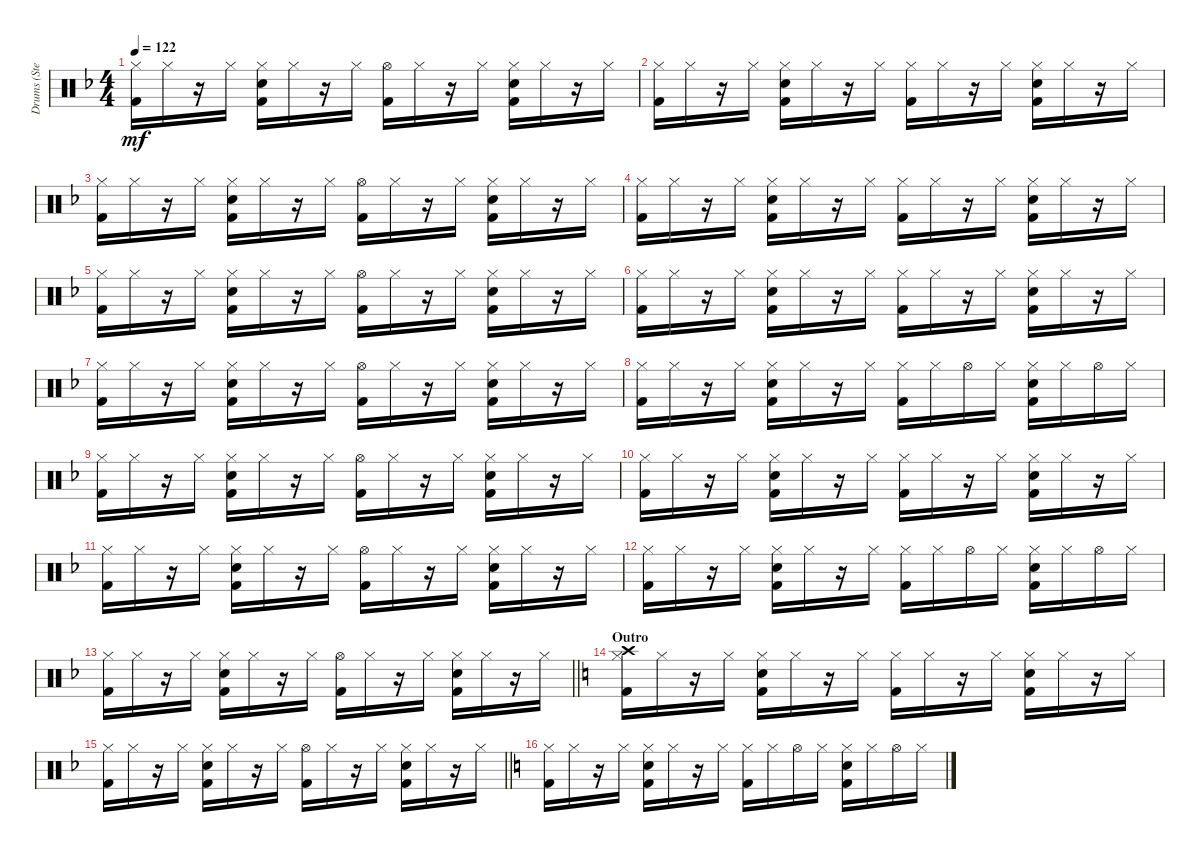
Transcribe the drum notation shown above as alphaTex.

\track ("Drums (Stephen Morris)" "Drums (Ste") {instrument percussion}
\staff {score}
\articulation defaults
\ts (4 4)
\tempo 122
\clef neutral
\ks f
("Kick (hit) 2" "Hi-Hat (closed)").16{dy mf} "Hi-Hat (closed)".16 r.16 "Hi-Hat (closed)".16 ("Hi-Hat (closed)" "Snare (hit) 2" "Kick (hit) 2").16 "Hi-Hat (closed)".16 r.16 "Hi-Hat (closed)".16 ("Kick (hit) 2" "Hi-Hat (open)").16 "Hi-Hat (closed)".16 r.16 "Hi-Hat (closed)".16 ("Hi-Hat (closed)" "Snare (hit) 2" "Kick (hit) 2").16 "Hi-Hat (closed)".16 r.16 "Hi-Hat (closed)".16 |
("Kick (hit) 2" "Hi-Hat (closed)").16 "Hi-Hat (closed)".16 r.16 "Hi-Hat (closed)".16 ("Kick (hit) 2" "Snare (hit) 2" "Hi-Hat (closed)").16 "Hi-Hat (closed)".16 r.16 "Hi-Hat (closed)".16 ("Kick (hit) 2" "Hi-Hat (closed)").16 "Hi-Hat (closed)".16 r.16 "Hi-Hat (closed)".16 ("Hi-Hat (closed)" "Snare (hit) 2" "Kick (hit) 2").16 "Hi-Hat (closed)".16 r.16 "Hi-Hat (closed)".16 |
("Kick (hit) 2" "Hi-Hat (closed)").16 "Hi-Hat (closed)".16 r.16 "Hi-Hat (closed)".16 ("Hi-Hat (closed)" "Snare (hit) 2" "Kick (hit) 2").16 "Hi-Hat (closed)".16 r.16 "Hi-Hat (closed)".16 ("Kick (hit) 2" "Hi-Hat (open)").16 "Hi-Hat (closed)".16 r.16 "Hi-Hat (closed)".16 ("Hi-Hat (closed)" "Snare (hit) 2" "Kick (hit) 2").16 "Hi-Hat (closed)".16 r.16 "Hi-Hat (closed)".16 |
("Kick (hit) 2" "Hi-Hat (closed)").16 "Hi-Hat (closed)".16 r.16 "Hi-Hat (closed)".16 ("Snare (hit) 2" "Kick (hit) 2" "Hi-Hat (closed)").16 "Hi-Hat (closed)".16 r.16 "Hi-Hat (closed)".16 ("Kick (hit) 2" "Hi-Hat (closed)").16 "Hi-Hat (closed)".16 r.16 "Hi-Hat (closed)".16 ("Hi-Hat (closed)" "Snare (hit) 2" "Kick (hit) 2").16 "Hi-Hat (closed)".16 r.16 "Hi-Hat (closed)".16 |
("Kick (hit) 2" "Hi-Hat (closed)").16 "Hi-Hat (closed)".16 r.16 "Hi-Hat (closed)".16 ("Kick (hit) 2" "Snare (hit) 2" "Hi-Hat (closed)").16 "Hi-Hat (closed)".16 r.16 "Hi-Hat (closed)".16 ("Kick (hit) 2" "Hi-Hat (open)").16 "Hi-Hat (closed)".16 r.16 "Hi-Hat (closed)".16 ("Hi-Hat (closed)" "Kick (hit) 2" "Snare (hit) 2").16 "Hi-Hat (closed)".16 r.16 "Hi-Hat (closed)".16 |
("Hi-Hat (closed)" "Kick (hit) 2").16 "Hi-Hat (closed)".16 r.16 "Hi-Hat (closed)".16 ("Hi-Hat (closed)" "Snare (hit) 2" "Kick (hit) 2").16 "Hi-Hat (closed)".16 r.16 "Hi-Hat (closed)".16 ("Kick (hit) 2" "Hi-Hat (closed)").16 "Hi-Hat (closed)".16 r.16 "Hi-Hat (closed)".16 ("Kick (hit) 2" "Snare (hit) 2" "Hi-Hat (closed)").16 "Hi-Hat (closed)".16 r.16 "Hi-Hat (closed)".16 |
("Kick (hit) 2" "Hi-Hat (closed)").16 "Hi-Hat (closed)".16 r.16 "Hi-Hat (closed)".16 ("Hi-Hat (closed)" "Kick (hit) 2" "Snare (hit) 2").16 "Hi-Hat (closed)".16 r.16 "Hi-Hat (closed)".16 ("Kick (hit) 2" "Hi-Hat (open)").16 "Hi-Hat (closed)".16 r.16 "Hi-Hat (closed)".16 ("Kick (hit) 2" "Snare (hit) 2" "Hi-Hat (closed)").16 "Hi-Hat (closed)".16 r.16 "Hi-Hat (closed)".16 |
("Kick (hit) 2" "Hi-Hat (closed)").16 "Hi-Hat (closed)".16 r.16 "Hi-Hat (closed)".16 ("Hi-Hat (closed)" "Kick (hit) 2" "Snare (hit) 2").16 "Hi-Hat (closed)".16 r.16 "Hi-Hat (closed)".16 ("Hi-Hat (closed)" "Kick (hit) 2").16 "Hi-Hat (closed)".16 "Hi-Hat (open)".16 "Hi-Hat (closed)".16 ("Kick (hit) 2" "Snare (hit) 2" "Hi-Hat (closed)").16 "Hi-Hat (closed)".16 "Hi-Hat (open)".16 "Hi-Hat (closed)".16 |
("Kick (hit) 2" "Hi-Hat (closed)").16 "Hi-Hat (closed)".16 r.16 "Hi-Hat (closed)".16 ("Hi-Hat (closed)" "Snare (hit) 2" "Kick (hit) 2").16 "Hi-Hat (closed)".16 r.16 "Hi-Hat (closed)".16 ("Kick (hit) 2" "Hi-Hat (open)").16 "Hi-Hat (closed)".16 r.16 "Hi-Hat (closed)".16 ("Snare (hit) 2" "Kick (hit) 2" "Hi-Hat (closed)").16 "Hi-Hat (closed)".16 r.16 "Hi-Hat (closed)".16 |
("Kick (hit) 2" "Hi-Hat (closed)").16 "Hi-Hat (closed)".16 r.16 "Hi-Hat (closed)".16 ("Hi-Hat (closed)" "Snare (hit) 2" "Kick (hit) 2").16 "Hi-Hat (closed)".16 r.16 "Hi-Hat (closed)".16 ("Kick (hit) 2" "Hi-Hat (closed)").16 "Hi-Hat (closed)".16 r.16 "Hi-Hat (closed)".16 ("Snare (hit) 2" "Kick (hit) 2" "Hi-Hat (closed)").16 "Hi-Hat (closed)".16 r.16 "Hi-Hat (closed)".16 |
("Kick (hit) 2" "Hi-Hat (closed)").16 "Hi-Hat (closed)".16 r.16 "Hi-Hat (closed)".16 ("Hi-Hat (closed)" "Snare (hit) 2" "Kick (hit) 2").16 "Hi-Hat (closed)".16 r.16 "Hi-Hat (closed)".16 ("Hi-Hat (open)" "Kick (hit) 2").16 "Hi-Hat (closed)".16 r.16 "Hi-Hat (closed)".16 ("Hi-Hat (closed)" "Snare (hit) 2" "Kick (hit) 2").16 "Hi-Hat (closed)".16 r.16 "Hi-Hat (closed)".16 |
("Kick (hit) 2" "Hi-Hat (closed)").16 "Hi-Hat (closed)".16 r.16 "Hi-Hat (closed)".16 ("Kick (hit) 2" "Snare (hit) 2" "Hi-Hat (closed)").16 "Hi-Hat (closed)".16 r.16 "Hi-Hat (closed)".16 ("Hi-Hat (closed)" "Kick (hit) 2").16 "Hi-Hat (closed)".16 "Hi-Hat (open)".16 "Hi-Hat (closed)".16 ("Kick (hit) 2" "Snare (hit) 2" "Hi-Hat (closed)").16 "Hi-Hat (closed)".16 "Hi-Hat (open)".16 "Hi-Hat (closed)".16 |
\barLineRight lightlight
("Kick (hit) 2" "Hi-Hat (closed)").16 "Hi-Hat (closed)".16 r.16 "Hi-Hat (closed)".16 ("Hi-Hat (closed)" "Snare (hit) 2" "Kick (hit) 2").16 "Hi-Hat (closed)".16 r.16 "Hi-Hat (closed)".16 ("Kick (hit) 2" "Hi-Hat (open)").16 "Hi-Hat (closed)".16 r.16 "Hi-Hat (closed)".16 ("Snare (hit) 2" "Kick (hit) 2" "Hi-Hat (closed)").16 "Hi-Hat (closed)".16 r.16 "Hi-Hat (closed)".16 |
\section ("" "Outro")
\ks c
("Hi-Hat (closed)" "Kick (hit) 2" "Crash high (hit)").16 "Hi-Hat (closed)".16 r.16 "Hi-Hat (closed)".16 ("Hi-Hat (closed)" "Snare (hit) 2" "Kick (hit) 2").16 "Hi-Hat (closed)".16 r.16 "Hi-Hat (closed)".16 ("Hi-Hat (closed)" "Kick (hit) 2").16 "Hi-Hat (closed)".16 r.16 "Hi-Hat (closed)".16 ("Hi-Hat (closed)" "Snare (hit) 2" "Kick (hit) 2").16 "Hi-Hat (closed)".16 r.16 "Hi-Hat (closed)".16 |
\barLineRight lightlight
\ks f
("Kick (hit) 2" "Hi-Hat (closed)").16 "Hi-Hat (closed)".16 r.16 "Hi-Hat (closed)".16 ("Hi-Hat (closed)" "Snare (hit) 2" "Kick (hit) 2").16 "Hi-Hat (closed)".16 r.16 "Hi-Hat (closed)".16 ("Hi-Hat (open)" "Kick (hit) 2").16 "Hi-Hat (closed)".16 r.16 "Hi-Hat (closed)".16 ("Hi-Hat (closed)" "Snare (hit) 2" "Kick (hit) 2").16 "Hi-Hat (closed)".16 r.16 "Hi-Hat (closed)".16 |
\ks c
("Kick (hit) 2" "Hi-Hat (closed)").16 "Hi-Hat (closed)".16 r.16 "Hi-Hat (closed)".16 ("Kick (hit) 2" "Snare (hit) 2" "Hi-Hat (closed)").16 "Hi-Hat (closed)".16 r.16 "Hi-Hat (closed)".16 ("Hi-Hat (closed)" "Kick (hit) 2").16 "Hi-Hat (closed)".16 "Hi-Hat (open)".16 "Hi-Hat (closed)".16 ("Kick (hit) 2" "Snare (hit) 2" "Hi-Hat (closed)").16 "Hi-Hat (closed)".16 "Hi-Hat (open)".16 "Hi-Hat (closed)".16
